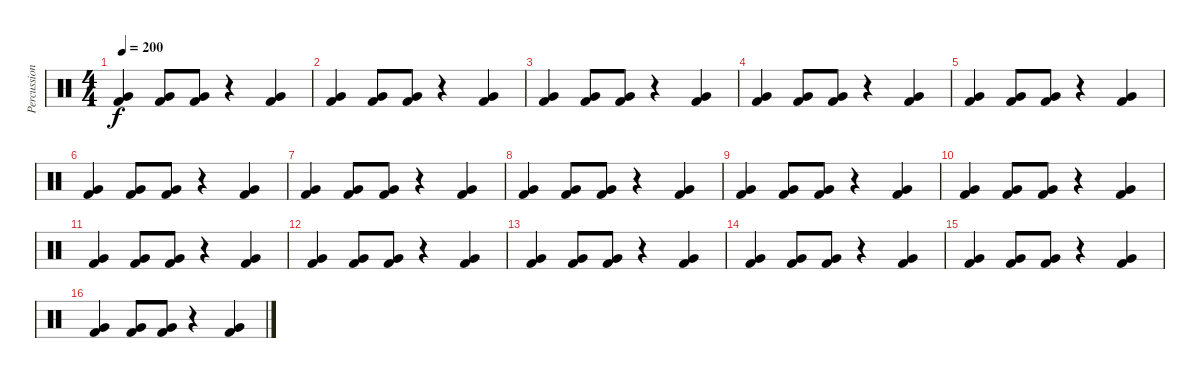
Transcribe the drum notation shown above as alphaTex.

\track ("Percussions" "Percussion") {instrument percussion}
\staff {score}
\articulation defaults
\ts (4 4)
\tempo 200
\clef neutral
\ks c
("Very Low Tom (hit)" "Kick (hit) 2").4{dy f} ("Very Low Tom (hit)" "Kick (hit) 2").8 ("Very Low Tom (hit)" "Kick (hit) 2").8 r.4 ("Very Low Tom (hit)" "Kick (hit) 2").4 |
("Very Low Tom (hit)" "Kick (hit) 2").4 ("Very Low Tom (hit)" "Kick (hit) 2").8 ("Very Low Tom (hit)" "Kick (hit) 2").8 r.4 ("Very Low Tom (hit)" "Kick (hit) 2").4 |
("Very Low Tom (hit)" "Kick (hit) 2").4 ("Very Low Tom (hit)" "Kick (hit) 2").8 ("Very Low Tom (hit)" "Kick (hit) 2").8 r.4 ("Very Low Tom (hit)" "Kick (hit) 2").4 |
("Very Low Tom (hit)" "Kick (hit) 2").4 ("Very Low Tom (hit)" "Kick (hit) 2").8 ("Very Low Tom (hit)" "Kick (hit) 2").8 r.4 ("Very Low Tom (hit)" "Kick (hit) 2").4 |
("Very Low Tom (hit)" "Kick (hit) 2").4 ("Very Low Tom (hit)" "Kick (hit) 2").8 ("Very Low Tom (hit)" "Kick (hit) 2").8 r.4 ("Very Low Tom (hit)" "Kick (hit) 2").4 |
("Very Low Tom (hit)" "Kick (hit) 2").4 ("Very Low Tom (hit)" "Kick (hit) 2").8 ("Very Low Tom (hit)" "Kick (hit) 2").8 r.4 ("Very Low Tom (hit)" "Kick (hit) 2").4 |
("Very Low Tom (hit)" "Kick (hit) 2").4 ("Very Low Tom (hit)" "Kick (hit) 2").8 ("Very Low Tom (hit)" "Kick (hit) 2").8 r.4 ("Very Low Tom (hit)" "Kick (hit) 2").4 |
("Very Low Tom (hit)" "Kick (hit) 2").4 ("Very Low Tom (hit)" "Kick (hit) 2").8 ("Very Low Tom (hit)" "Kick (hit) 2").8 r.4 ("Very Low Tom (hit)" "Kick (hit) 2").4 |
("Very Low Tom (hit)" "Kick (hit) 2").4 ("Very Low Tom (hit)" "Kick (hit) 2").8 ("Very Low Tom (hit)" "Kick (hit) 2").8 r.4 ("Very Low Tom (hit)" "Kick (hit) 2").4 |
("Very Low Tom (hit)" "Kick (hit) 2").4 ("Very Low Tom (hit)" "Kick (hit) 2").8 ("Very Low Tom (hit)" "Kick (hit) 2").8 r.4 ("Very Low Tom (hit)" "Kick (hit) 2").4 |
("Very Low Tom (hit)" "Kick (hit) 2").4 ("Very Low Tom (hit)" "Kick (hit) 2").8 ("Very Low Tom (hit)" "Kick (hit) 2").8 r.4 ("Very Low Tom (hit)" "Kick (hit) 2").4 |
("Very Low Tom (hit)" "Kick (hit) 2").4 ("Very Low Tom (hit)" "Kick (hit) 2").8 ("Very Low Tom (hit)" "Kick (hit) 2").8 r.4 ("Very Low Tom (hit)" "Kick (hit) 2").4 |
("Very Low Tom (hit)" "Kick (hit) 2").4 ("Very Low Tom (hit)" "Kick (hit) 2").8 ("Very Low Tom (hit)" "Kick (hit) 2").8 r.4 ("Very Low Tom (hit)" "Kick (hit) 2").4 |
("Very Low Tom (hit)" "Kick (hit) 2").4 ("Very Low Tom (hit)" "Kick (hit) 2").8 ("Very Low Tom (hit)" "Kick (hit) 2").8 r.4 ("Very Low Tom (hit)" "Kick (hit) 2").4 |
("Very Low Tom (hit)" "Kick (hit) 2").4 ("Very Low Tom (hit)" "Kick (hit) 2").8 ("Very Low Tom (hit)" "Kick (hit) 2").8 r.4 ("Very Low Tom (hit)" "Kick (hit) 2").4 |
("Very Low Tom (hit)" "Kick (hit) 2").4 ("Very Low Tom (hit)" "Kick (hit) 2").8 ("Very Low Tom (hit)" "Kick (hit) 2").8 r.4 ("Very Low Tom (hit)" "Kick (hit) 2").4
